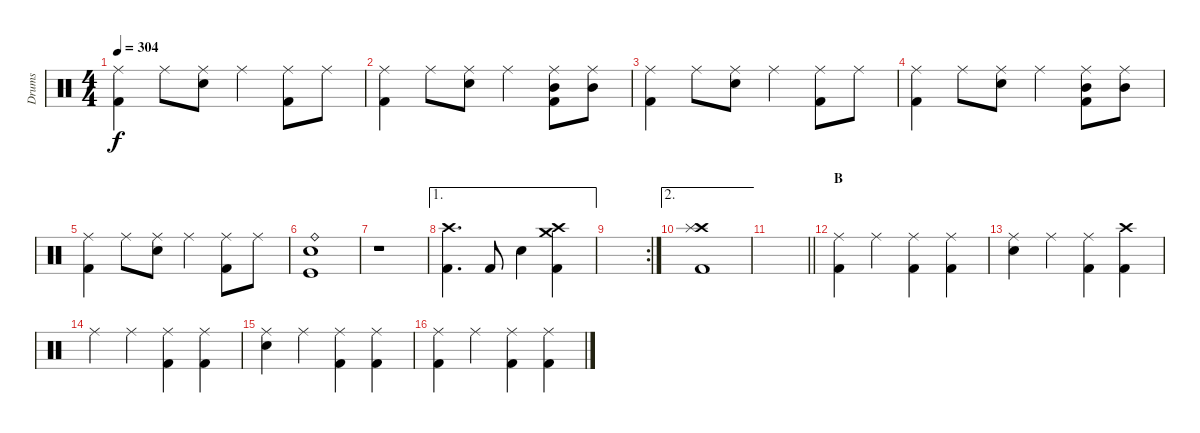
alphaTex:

\track ("Drums" "Drums") {instrument percussion}
\staff {score}
\articulation defaults
\ts (4 4)
\tempo 304
\clef neutral
\ks c
("Ride (middle)" "Kick (hit) 2").4{dy f} "Ride (middle)".8 ("Ride (middle)" "Snare (hit) 2").8 "Ride (middle)".4 ("Ride (middle)" "Kick (hit) 2").8 "Ride (middle)".8 |
("Ride (middle)" "Kick (hit) 2").4 "Ride (middle)".8 ("Ride (middle)" "Snare (hit) 2").8 "Ride (middle)".4 ("Ride (middle)" "Mid Tom (hit)" "Kick (hit) 2").8 ("Ride (middle)" "Mid Tom (hit)").8 |
("Ride (middle)" "Kick (hit) 2").4 "Ride (middle)".8 ("Ride (middle)" "Snare (hit) 2").8 "Ride (middle)".4 ("Ride (middle)" "Kick (hit) 2").8 "Ride (middle)".8 |
("Ride (middle)" "Kick (hit) 2").4 "Ride (middle)".8 ("Ride (middle)" "Snare (hit) 2").8 "Ride (middle)".4 ("Ride (middle)" "Mid Tom (hit)" "Kick (hit) 2").8 ("Ride (middle)" "Mid Tom (hit)").8 |
("Ride (middle)" "Kick (hit) 2").4 "Ride (middle)".8 ("Ride (middle)" "Snare (hit) 2").8 "Ride (middle)".4 ("Ride (middle)" "Kick (hit) 2").8 "Ride (middle)".8 |
("Ride (bell)" "Snare (hit) 2" "Kick (hit)").1 |
r.1 |
\ae 1
("Crash high (hit)" "Kick (hit) 2").4{d} "Kick (hit) 2".8 "Snare (hit) 2".4 ("Crash medium (hit)" "Crash high (hit)" "Kick (hit) 2").4 |
\rc 2
|
\ae 2
("Crash high (hit)" "Splash (hit)" "Kick (hit) 2").1 |
\barLineRight lightlight
|
\section ("" "B")
("Ride (middle)" "Kick (hit) 2").4 "Ride (middle)".4 ("Ride (middle)" "Kick (hit) 2").4 ("Ride (middle)" "Kick (hit) 2").4 |
("Ride (middle)" "Snare (hit) 2").4 "Ride (middle)".4 ("Ride (middle)" "Kick (hit) 2").4 ("Crash high (hit)" "Kick (hit) 2").4 |
"Ride (middle)".4 "Ride (middle)".4 ("Ride (middle)" "Kick (hit) 2").4 ("Ride (middle)" "Kick (hit) 2").4 |
("Ride (middle)" "Snare (hit) 2").4 "Ride (middle)".4 ("Ride (middle)" "Kick (hit) 2").4 ("Ride (middle)" "Kick (hit) 2").4 |
("Ride (middle)" "Kick (hit) 2").4 "Ride (middle)".4 ("Ride (middle)" "Kick (hit) 2").4 ("Ride (middle)" "Kick (hit) 2").4
